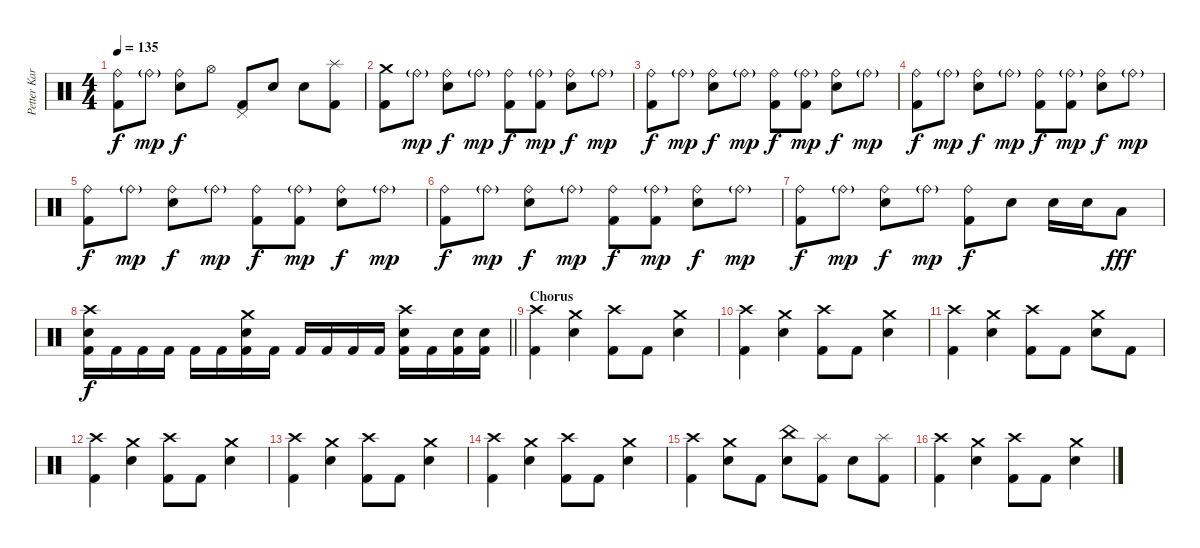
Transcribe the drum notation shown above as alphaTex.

\track ("Petter Karlsson" "Petter Kar") {instrument percussion}
\staff {score}
\articulation defaults
\ts (4 4)
\tempo 135
\clef neutral
\ks c
("Ride (bell)" "Kick (hit) 2").8{dy f} "Ride (bell)"{g}.8{dy mp} ("Ride (bell)" "Electric Snare (hit)").8{dy f} "Hi-Hat (open)".8 ("Pedal Hi-Hat (hit)" "Kick (hit) 2").8 "Electric Snare (hit)".8 "Electric Snare (hit)".8 ("Splash (hit)" "Kick (hit) 2").8 |
("Crash medium (hit)" "Kick (hit) 2").8 "Ride (bell)"{g}.8{dy mp} ("Ride (bell)" "Electric Snare (hit)").8{dy f} "Ride (bell)"{g}.8{dy mp} ("Ride (bell)" "Kick (hit) 2").8{dy f} ("Ride (bell)"{g} "Kick (hit) 2").8{dy mp} ("Ride (bell)" "Electric Snare (hit)").8{dy f} "Ride (bell)"{g}.8{dy mp} |
("Ride (bell)" "Kick (hit) 2").8{dy f} "Ride (bell)"{g}.8{dy mp} ("Ride (bell)" "Electric Snare (hit)").8{dy f} "Ride (bell)"{g}.8{dy mp} ("Ride (bell)" "Kick (hit) 2").8{dy f} ("Ride (bell)"{g} "Kick (hit) 2").8{dy mp} ("Ride (bell)" "Electric Snare (hit)").8{dy f} "Ride (bell)"{g}.8{dy mp} |
("Ride (bell)" "Kick (hit) 2").8{dy f} "Ride (bell)"{g}.8{dy mp} ("Ride (bell)" "Electric Snare (hit)").8{dy f} "Ride (bell)"{g}.8{dy mp} ("Ride (bell)" "Kick (hit) 2").8{dy f} ("Ride (bell)"{g} "Kick (hit) 2").8{dy mp} ("Ride (bell)" "Electric Snare (hit)").8{dy f} "Ride (bell)"{g}.8{dy mp} |
("Ride (bell)" "Kick (hit) 2").8{dy f} "Ride (bell)"{g}.8{dy mp} ("Ride (bell)" "Electric Snare (hit)").8{dy f} "Ride (bell)"{g}.8{dy mp} ("Ride (bell)" "Kick (hit) 2").8{dy f} ("Ride (bell)"{g} "Kick (hit) 2").8{dy mp} ("Ride (bell)" "Electric Snare (hit)").8{dy f} "Ride (bell)"{g}.8{dy mp} |
("Ride (bell)" "Kick (hit) 2").8{dy f} "Ride (bell)"{g}.8{dy mp} ("Ride (bell)" "Electric Snare (hit)").8{dy f} "Ride (bell)"{g}.8{dy mp} ("Ride (bell)" "Kick (hit) 2").8{dy f} ("Ride (bell)"{g} "Kick (hit) 2").8{dy mp} ("Ride (bell)" "Electric Snare (hit)").8{dy f} "Ride (bell)"{g}.8{dy mp} |
("Ride (bell)" "Kick (hit) 2").8{dy f} "Ride (bell)"{g}.8{dy mp} ("Ride (bell)" "Electric Snare (hit)").8{dy f} "Ride (bell)"{g}.8{dy mp} ("Ride (bell)" "Kick (hit) 2").8{dy f} "Electric Snare (hit)".8 "Electric Snare (hit)".16 "Electric Snare (hit)".16 "Low Tom (hit)".8{dy fff} |
\barLineRight lightlight
("Crash high (hit)" "Electric Snare (hit)" "Kick (hit) 2").16{dy f} "Kick (hit) 2".16 "Kick (hit) 2".16 "Kick (hit) 2".16 "Kick (hit) 2".16 "Kick (hit) 2".16 ("Crash medium (hit)" "Electric Snare (hit)" "Kick (hit) 2").16 "Kick (hit) 2".16 "Kick (hit) 2".16 "Kick (hit) 2".16 "Kick (hit) 2".16 "Kick (hit) 2".16 ("Crash high (hit)" "Electric Snare (hit)" "Kick (hit) 2").16 "Kick (hit) 2".16 ("Electric Snare (hit)" "Kick (hit) 2").16 ("Electric Snare (hit)" "Kick (hit) 2").16 |
\section ("" "Chorus")
("Crash high (hit)" "Kick (hit) 2").4 ("Crash medium (hit)" "Electric Snare (hit)").4 ("Crash high (hit)" "Kick (hit) 2").8 "Kick (hit) 2".8 ("Crash medium (hit)" "Electric Snare (hit)").4 |
("Crash high (hit)" "Kick (hit) 2").4 ("Crash medium (hit)" "Electric Snare (hit)").4 ("Crash high (hit)" "Kick (hit) 2").8 "Kick (hit) 2".8 ("Crash medium (hit)" "Electric Snare (hit)").4 |
("Crash high (hit)" "Kick (hit) 2").4 ("Crash medium (hit)" "Electric Snare (hit)").4 ("Crash high (hit)" "Kick (hit) 2").8 "Kick (hit) 2".8 ("Crash medium (hit)" "Electric Snare (hit)").8 "Kick (hit) 2".8 |
("Crash high (hit)" "Kick (hit) 2").4 ("Crash medium (hit)" "Electric Snare (hit)").4 ("Crash high (hit)" "Kick (hit) 2").8 "Kick (hit) 2".8 ("Crash medium (hit)" "Electric Snare (hit)").4 |
("Crash high (hit)" "Kick (hit) 2").4 ("Crash medium (hit)" "Electric Snare (hit)").4 ("Crash high (hit)" "Kick (hit) 2").8 "Kick (hit) 2".8 ("Crash medium (hit)" "Electric Snare (hit)").4 |
("Crash high (hit)" "Kick (hit) 2").4 ("Crash medium (hit)" "Electric Snare (hit)").4 ("Crash high (hit)" "Kick (hit) 2").8 "Kick (hit) 2".8 ("Crash medium (hit)" "Electric Snare (hit)").4 |
("Crash high (hit)" "Kick (hit) 2").4 ("Crash medium (hit)" "Electric Snare (hit)").8 "Kick (hit) 2".8 ("China (hit)" "Electric Snare (hit)").8 ("Splash (hit)" "Kick (hit) 2").8 "Electric Snare (hit)".8 ("Splash (hit)" "Kick (hit) 2").8 |
("Crash high (hit)" "Kick (hit) 2").4 ("Crash medium (hit)" "Electric Snare (hit)").4 ("Crash high (hit)" "Kick (hit) 2").8 "Kick (hit) 2".8 ("Crash medium (hit)" "Electric Snare (hit)").4
